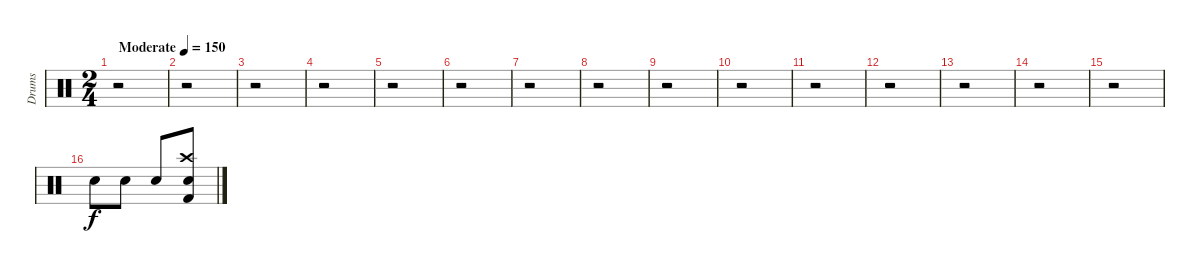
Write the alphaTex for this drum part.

\track ("Drums" "Drums") {instrument percussion}
\staff {score}
\articulation defaults
\ts (2 4)
\tempo (150 "Moderate")
\clef neutral
\ks c
r.2{dy f} |
r.2 |
r.2 |
r.2 |
r.2 |
r.2 |
r.2 |
r.2 |
r.2 |
r.2 |
r.2 |
r.2 |
r.2 |
r.2 |
r.2 |
"Electric Snare (hit)".8 "Electric Snare (hit)".8 "Electric Snare (hit)".8 ("Electric Snare (hit)" "Crash high (hit)" "Kick (hit) 2").8
